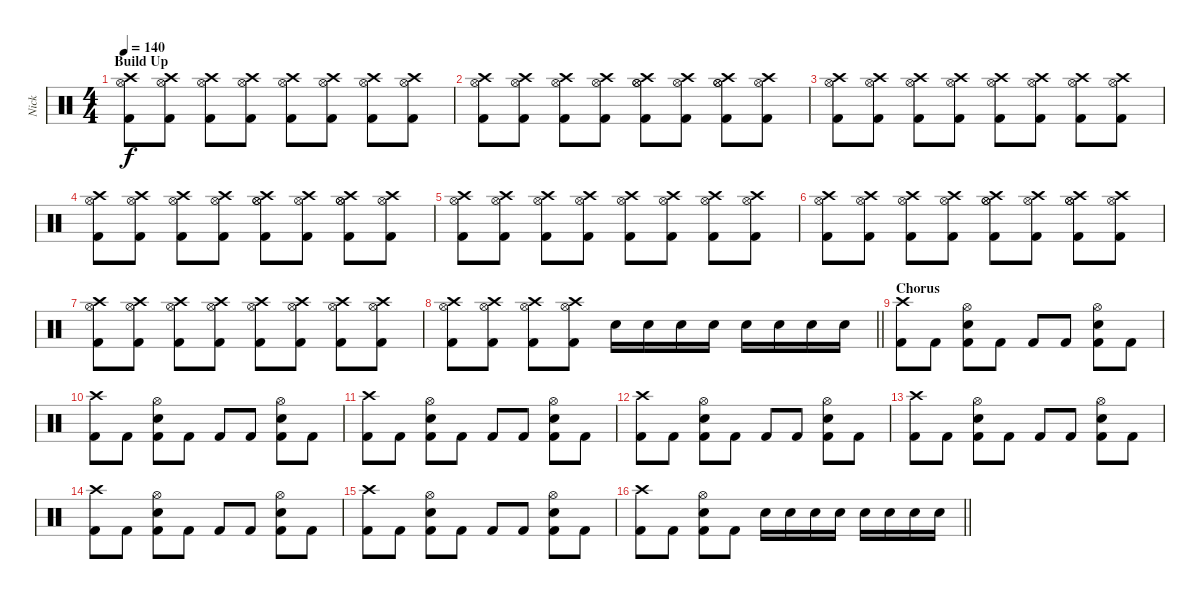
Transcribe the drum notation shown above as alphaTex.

\track ("Nick" "Nick") {instrument percussion}
\staff {score}
\articulation defaults
\ts (4 4)
\section ("" "Build Up")
\tempo 140
\clef neutral
\ks c
("Hi-Hat (open)" "Crash high (hit)" "Kick (hit) 2").8{dy f} ("Hi-Hat (open)" "Crash high (hit)" "Kick (hit) 2").8 ("Hi-Hat (open)" "Crash high (hit)" "Kick (hit) 2").8 ("Hi-Hat (open)" "Crash high (hit)" "Kick (hit) 2").8 ("Hi-Hat (open)" "Crash high (hit)" "Kick (hit) 2").8 ("Hi-Hat (open)" "Crash high (hit)" "Kick (hit) 2").8 ("Hi-Hat (open)" "Crash high (hit)" "Kick (hit) 2").8 ("Hi-Hat (open)" "Crash high (hit)" "Kick (hit) 2").8 |
("Hi-Hat (open)" "Crash high (hit)" "Kick (hit) 2").8 ("Hi-Hat (open)" "Crash high (hit)" "Kick (hit) 2").8 ("Hi-Hat (open)" "Crash high (hit)" "Kick (hit) 2").8 ("Hi-Hat (open)" "Crash high (hit)" "Kick (hit) 2").8 ("Hi-Hat (open)" "Hi-Hat (open)" "Crash high (hit)" "Kick (hit) 2").8 ("Hi-Hat (open)" "Crash high (hit)" "Kick (hit) 2").8 ("Hi-Hat (open)" "Hi-Hat (open)" "Crash high (hit)" "Kick (hit) 2").8 ("Hi-Hat (open)" "Crash high (hit)" "Kick (hit) 2").8 |
("Hi-Hat (open)" "Crash high (hit)" "Kick (hit) 2").8 ("Hi-Hat (open)" "Crash high (hit)" "Kick (hit) 2").8 ("Hi-Hat (open)" "Crash high (hit)" "Kick (hit) 2").8 ("Hi-Hat (open)" "Crash high (hit)" "Kick (hit) 2").8 ("Hi-Hat (open)" "Crash high (hit)" "Kick (hit) 2").8 ("Hi-Hat (open)" "Crash high (hit)" "Kick (hit) 2").8 ("Hi-Hat (open)" "Crash high (hit)" "Kick (hit) 2").8 ("Hi-Hat (open)" "Crash high (hit)" "Kick (hit) 2").8 |
("Hi-Hat (open)" "Crash high (hit)" "Kick (hit) 2").8 ("Hi-Hat (open)" "Crash high (hit)" "Kick (hit) 2").8 ("Hi-Hat (open)" "Crash high (hit)" "Kick (hit) 2").8 ("Hi-Hat (open)" "Crash high (hit)" "Kick (hit) 2").8 ("Hi-Hat (open)" "Hi-Hat (open)" "Crash high (hit)" "Kick (hit) 2").8 ("Hi-Hat (open)" "Crash high (hit)" "Kick (hit) 2").8 ("Hi-Hat (open)" "Hi-Hat (open)" "Crash high (hit)" "Kick (hit) 2").8 ("Hi-Hat (open)" "Crash high (hit)" "Kick (hit) 2").8 |
("Hi-Hat (open)" "Crash high (hit)" "Kick (hit) 2").8 ("Hi-Hat (open)" "Crash high (hit)" "Kick (hit) 2").8 ("Hi-Hat (open)" "Crash high (hit)" "Kick (hit) 2").8 ("Hi-Hat (open)" "Crash high (hit)" "Kick (hit) 2").8 ("Hi-Hat (open)" "Crash high (hit)" "Kick (hit) 2").8 ("Hi-Hat (open)" "Crash high (hit)" "Kick (hit) 2").8 ("Hi-Hat (open)" "Crash high (hit)" "Kick (hit) 2").8 ("Hi-Hat (open)" "Crash high (hit)" "Kick (hit) 2").8 |
("Hi-Hat (open)" "Crash high (hit)" "Kick (hit) 2").8 ("Hi-Hat (open)" "Crash high (hit)" "Kick (hit) 2").8 ("Hi-Hat (open)" "Crash high (hit)" "Kick (hit) 2").8 ("Hi-Hat (open)" "Crash high (hit)" "Kick (hit) 2").8 ("Hi-Hat (open)" "Hi-Hat (open)" "Crash high (hit)" "Kick (hit) 2").8 ("Hi-Hat (open)" "Crash high (hit)" "Kick (hit) 2").8 ("Hi-Hat (open)" "Hi-Hat (open)" "Crash high (hit)" "Kick (hit) 2").8 ("Hi-Hat (open)" "Crash high (hit)" "Kick (hit) 2").8 |
("Hi-Hat (open)" "Crash high (hit)" "Kick (hit) 2").8 ("Hi-Hat (open)" "Crash high (hit)" "Kick (hit) 2").8 ("Hi-Hat (open)" "Crash high (hit)" "Kick (hit) 2").8 ("Hi-Hat (open)" "Crash high (hit)" "Kick (hit) 2").8 ("Hi-Hat (open)" "Crash high (hit)" "Kick (hit) 2").8 ("Hi-Hat (open)" "Crash high (hit)" "Kick (hit) 2").8 ("Hi-Hat (open)" "Crash high (hit)" "Kick (hit) 2").8 ("Hi-Hat (open)" "Crash high (hit)" "Kick (hit) 2").8 |
\barLineRight lightlight
("Hi-Hat (open)" "Crash high (hit)" "Kick (hit) 2").8 ("Hi-Hat (open)" "Crash high (hit)" "Kick (hit) 2").8 ("Hi-Hat (open)" "Crash high (hit)" "Kick (hit) 2").8 ("Hi-Hat (open)" "Crash high (hit)" "Kick (hit) 2").8 "Snare (hit) 2".16 "Snare (hit) 2".16 "Snare (hit) 2".16 "Snare (hit) 2".16 "Snare (hit) 2".16 "Snare (hit) 2".16 "Snare (hit) 2".16 "Snare (hit) 2".16 |
\section ("" "Chorus")
("Crash high (hit)" "Kick (hit) 2").8 "Kick (hit) 2".8 ("Hi-Hat (open)" "Snare (hit) 2" "Kick (hit) 2").8 "Kick (hit) 2".8 "Kick (hit) 2".8 "Kick (hit) 2".8 ("Hi-Hat (open)" "Snare (hit) 2" "Kick (hit) 2").8 "Kick (hit) 2".8 |
("Crash high (hit)" "Kick (hit) 2").8 "Kick (hit) 2".8 ("Hi-Hat (open)" "Snare (hit) 2" "Kick (hit) 2").8 "Kick (hit) 2".8 "Kick (hit) 2".8 "Kick (hit) 2".8 ("Hi-Hat (open)" "Snare (hit) 2" "Kick (hit) 2").8 "Kick (hit) 2".8 |
("Crash high (hit)" "Kick (hit) 2").8 "Kick (hit) 2".8 ("Hi-Hat (open)" "Snare (hit) 2" "Kick (hit) 2").8 "Kick (hit) 2".8 "Kick (hit) 2".8 "Kick (hit) 2".8 ("Hi-Hat (open)" "Snare (hit) 2" "Kick (hit) 2").8 "Kick (hit) 2".8 |
("Crash high (hit)" "Kick (hit) 2").8 "Kick (hit) 2".8 ("Hi-Hat (open)" "Snare (hit) 2" "Kick (hit) 2").8 "Kick (hit) 2".8 "Kick (hit) 2".8 "Kick (hit) 2".8 ("Hi-Hat (open)" "Snare (hit) 2" "Kick (hit) 2").8 "Kick (hit) 2".8 |
("Crash high (hit)" "Kick (hit) 2").8 "Kick (hit) 2".8 ("Hi-Hat (open)" "Snare (hit) 2" "Kick (hit) 2").8 "Kick (hit) 2".8 "Kick (hit) 2".8 "Kick (hit) 2".8 ("Hi-Hat (open)" "Snare (hit) 2" "Kick (hit) 2").8 "Kick (hit) 2".8 |
("Crash high (hit)" "Kick (hit) 2").8 "Kick (hit) 2".8 ("Hi-Hat (open)" "Snare (hit) 2" "Kick (hit) 2").8 "Kick (hit) 2".8 "Kick (hit) 2".8 "Kick (hit) 2".8 ("Hi-Hat (open)" "Snare (hit) 2" "Kick (hit) 2").8 "Kick (hit) 2".8 |
("Crash high (hit)" "Kick (hit) 2").8 "Kick (hit) 2".8 ("Hi-Hat (open)" "Snare (hit) 2" "Kick (hit) 2").8 "Kick (hit) 2".8 "Kick (hit) 2".8 "Kick (hit) 2".8 ("Hi-Hat (open)" "Snare (hit) 2" "Kick (hit) 2").8 "Kick (hit) 2".8 |
\barLineRight lightlight
("Crash high (hit)" "Kick (hit) 2").8 "Kick (hit) 2".8 ("Hi-Hat (open)" "Snare (hit) 2" "Kick (hit) 2").8 "Kick (hit) 2".8 "Snare (hit) 2".16 "Snare (hit) 2".16 "Snare (hit) 2".16 "Snare (hit) 2".16 "Snare (hit) 2".16 "Snare (hit) 2".16 "Snare (hit) 2".16 "Snare (hit) 2".16
